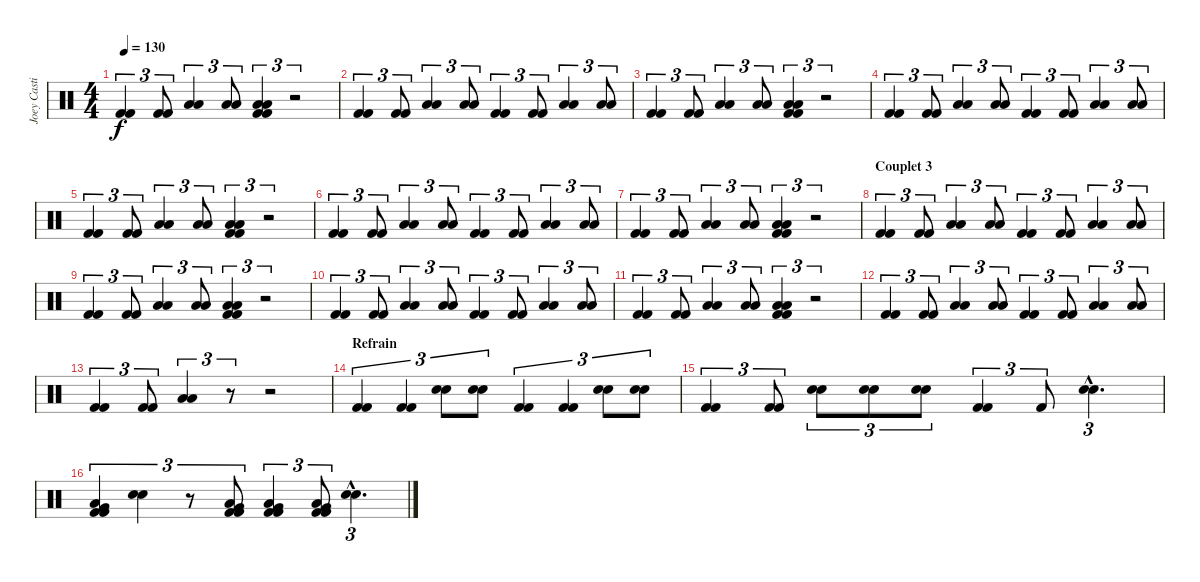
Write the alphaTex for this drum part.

\track ("Joey Castillo" "Joey Casti") {instrument percussion}
\staff {score}
\articulation defaults
\ts (4 4)
\tempo 130
\clef neutral
\ks c
("Kick (hit) 2" "Kick (hit) 2").4{tu (3 2) dy f} ("Kick (hit) 2" "Kick (hit) 2").8{tu (3 2)} ("Low Floor Tom (hit)" "Low Floor Tom (hit)").4{tu (3 2)} ("Low Floor Tom (hit)" "Low Floor Tom (hit)").8{tu (3 2)} ("Low Floor Tom (hit)" "Low Floor Tom (hit)" "Kick (hit) 2" "Kick (hit) 2").4{tu (3 2)} r.2{tu (3 2)} |
("Kick (hit) 2" "Kick (hit) 2").4{tu (3 2)} ("Kick (hit) 2" "Kick (hit) 2").8{tu (3 2)} ("Low Floor Tom (hit)" "Low Floor Tom (hit)").4{tu (3 2)} ("Low Floor Tom (hit)" "Low Floor Tom (hit)").8{tu (3 2)} ("Kick (hit) 2" "Kick (hit) 2").4{tu (3 2)} ("Kick (hit) 2" "Kick (hit) 2").8{tu (3 2)} ("Low Floor Tom (hit)" "Low Floor Tom (hit)").4{tu (3 2)} ("Low Floor Tom (hit)" "Low Floor Tom (hit)").8{tu (3 2)} |
("Kick (hit) 2" "Kick (hit) 2").4{tu (3 2)} ("Kick (hit) 2" "Kick (hit) 2").8{tu (3 2)} ("Low Floor Tom (hit)" "Low Floor Tom (hit)").4{tu (3 2)} ("Low Floor Tom (hit)" "Low Floor Tom (hit)").8{tu (3 2)} ("Low Floor Tom (hit)" "Low Floor Tom (hit)" "Kick (hit) 2" "Kick (hit) 2").4{tu (3 2)} r.2{tu (3 2)} |
("Kick (hit) 2" "Kick (hit) 2").4{tu (3 2)} ("Kick (hit) 2" "Kick (hit) 2").8{tu (3 2)} ("Low Floor Tom (hit)" "Low Floor Tom (hit)").4{tu (3 2)} ("Low Floor Tom (hit)" "Low Floor Tom (hit)").8{tu (3 2)} ("Kick (hit) 2" "Kick (hit) 2").4{tu (3 2)} ("Kick (hit) 2" "Kick (hit) 2").8{tu (3 2)} ("Low Floor Tom (hit)" "Low Floor Tom (hit)").4{tu (3 2)} ("Low Floor Tom (hit)" "Low Floor Tom (hit)").8{tu (3 2)} |
("Kick (hit) 2" "Kick (hit) 2").4{tu (3 2)} ("Kick (hit) 2" "Kick (hit) 2").8{tu (3 2)} ("Low Floor Tom (hit)" "Low Floor Tom (hit)").4{tu (3 2)} ("Low Floor Tom (hit)" "Low Floor Tom (hit)").8{tu (3 2)} ("Low Floor Tom (hit)" "Low Floor Tom (hit)" "Kick (hit) 2" "Kick (hit) 2").4{tu (3 2)} r.2{tu (3 2)} |
("Kick (hit) 2" "Kick (hit) 2").4{tu (3 2)} ("Kick (hit) 2" "Kick (hit) 2").8{tu (3 2)} ("Low Floor Tom (hit)" "Low Floor Tom (hit)").4{tu (3 2)} ("Low Floor Tom (hit)" "Low Floor Tom (hit)").8{tu (3 2)} ("Kick (hit) 2" "Kick (hit) 2").4{tu (3 2)} ("Kick (hit) 2" "Kick (hit) 2").8{tu (3 2)} ("Low Floor Tom (hit)" "Low Floor Tom (hit)").4{tu (3 2)} ("Low Floor Tom (hit)" "Low Floor Tom (hit)").8{tu (3 2)} |
("Kick (hit) 2" "Kick (hit) 2").4{tu (3 2)} ("Kick (hit) 2" "Kick (hit) 2").8{tu (3 2)} ("Low Floor Tom (hit)" "Low Floor Tom (hit)").4{tu (3 2)} ("Low Floor Tom (hit)" "Low Floor Tom (hit)").8{tu (3 2)} ("Low Floor Tom (hit)" "Low Floor Tom (hit)" "Kick (hit) 2" "Kick (hit) 2").4{tu (3 2)} r.2{tu (3 2)} |
\section ("" "Couplet 3")
("Kick (hit) 2" "Kick (hit) 2").4{tu (3 2)} ("Kick (hit) 2" "Kick (hit) 2").8{tu (3 2)} ("Low Floor Tom (hit)" "Low Floor Tom (hit)").4{tu (3 2)} ("Low Floor Tom (hit)" "Low Floor Tom (hit)").8{tu (3 2)} ("Kick (hit) 2" "Kick (hit) 2").4{tu (3 2)} ("Kick (hit) 2" "Kick (hit) 2").8{tu (3 2)} ("Low Floor Tom (hit)" "Low Floor Tom (hit)").4{tu (3 2)} ("Low Floor Tom (hit)" "Low Floor Tom (hit)").8{tu (3 2)} |
("Kick (hit) 2" "Kick (hit) 2").4{tu (3 2)} ("Kick (hit) 2" "Kick (hit) 2").8{tu (3 2)} ("Low Floor Tom (hit)" "Low Floor Tom (hit)").4{tu (3 2)} ("Low Floor Tom (hit)" "Low Floor Tom (hit)").8{tu (3 2)} ("Low Floor Tom (hit)" "Low Floor Tom (hit)" "Kick (hit) 2" "Kick (hit) 2").4{tu (3 2)} r.2{tu (3 2)} |
("Kick (hit) 2" "Kick (hit) 2").4{tu (3 2)} ("Kick (hit) 2" "Kick (hit) 2").8{tu (3 2)} ("Low Floor Tom (hit)" "Low Floor Tom (hit)").4{tu (3 2)} ("Low Floor Tom (hit)" "Low Floor Tom (hit)").8{tu (3 2)} ("Kick (hit) 2" "Kick (hit) 2").4{tu (3 2)} ("Kick (hit) 2" "Kick (hit) 2").8{tu (3 2)} ("Low Floor Tom (hit)" "Low Floor Tom (hit)").4{tu (3 2)} ("Low Floor Tom (hit)" "Low Floor Tom (hit)").8{tu (3 2)} |
("Kick (hit) 2" "Kick (hit) 2").4{tu (3 2)} ("Kick (hit) 2" "Kick (hit) 2").8{tu (3 2)} ("Low Floor Tom (hit)" "Low Floor Tom (hit)").4{tu (3 2)} ("Low Floor Tom (hit)" "Low Floor Tom (hit)").8{tu (3 2)} ("Low Floor Tom (hit)" "Low Floor Tom (hit)" "Kick (hit) 2" "Kick (hit) 2").4{tu (3 2)} r.2{tu (3 2)} |
("Kick (hit) 2" "Kick (hit) 2").4{tu (3 2)} ("Kick (hit) 2" "Kick (hit) 2").8{tu (3 2)} ("Low Floor Tom (hit)" "Low Floor Tom (hit)").4{tu (3 2)} ("Low Floor Tom (hit)" "Low Floor Tom (hit)").8{tu (3 2)} ("Kick (hit) 2" "Kick (hit) 2").4{tu (3 2)} ("Kick (hit) 2" "Kick (hit) 2").8{tu (3 2)} ("Low Floor Tom (hit)" "Low Floor Tom (hit)").4{tu (3 2)} ("Low Floor Tom (hit)" "Low Floor Tom (hit)").8{tu (3 2)} |
("Kick (hit) 2" "Kick (hit) 2").4{tu (3 2)} ("Kick (hit) 2" "Kick (hit) 2").8{tu (3 2)} ("Low Floor Tom (hit)" "Low Floor Tom (hit)").4{tu (3 2)} r.8{tu (3 2)} r.2 |
\section ("" "Refrain")
("Kick (hit) 2" "Kick (hit) 2").4{tu (3 2)} ("Kick (hit) 2" "Kick (hit) 2").4{tu (3 2)} ("Electric Snare (hit)" "Electric Snare (hit)").8{tu (3 2)} ("Electric Snare (hit)" "Electric Snare (hit)").8{tu (3 2)} ("Kick (hit) 2" "Kick (hit) 2").4{tu (3 2)} ("Kick (hit) 2" "Kick (hit) 2").4{tu (3 2)} ("Electric Snare (hit)" "Electric Snare (hit)").8{tu (3 2)} ("Electric Snare (hit)" "Electric Snare (hit)").8{tu (3 2)} |
("Kick (hit) 2" "Kick (hit) 2").4{tu (3 2)} ("Kick (hit) 2" "Kick (hit) 2").8{tu (3 2)} ("Electric Snare (hit)" "Electric Snare (hit)").8{tu (3 2)} ("Electric Snare (hit)" "Electric Snare (hit)").8{tu (3 2)} ("Electric Snare (hit)" "Electric Snare (hit)").8{tu (3 2)} ("Kick (hit) 2" "Kick (hit) 2").4{tu (3 2)} "Kick (hit) 2".8{tu (3 2)} ("Electric Snare (hit)"{hac} "Electric Snare (hit)"{hac}).4{d tu (3 2)} |
("Low Floor Tom (hit)" "Very Low Tom (hit)" "Kick (hit) 2" "Kick (hit) 2").4{tu (3 2)} ("Electric Snare (hit)" "Electric Snare (hit)").4{tu (3 2)} r.8{tu (3 2)} ("Low Floor Tom (hit)" "Very Low Tom (hit)" "Kick (hit) 2" "Kick (hit) 2").8{tu (3 2)} ("Low Floor Tom (hit)" "Very Low Tom (hit)" "Kick (hit) 2" "Kick (hit) 2").4{tu (3 2)} ("Low Floor Tom (hit)" "Very Low Tom (hit)" "Kick (hit) 2" "Kick (hit) 2").8{tu (3 2)} ("Electric Snare (hit)"{hac} "Electric Snare (hit)"{hac}).4{d tu (3 2)}
